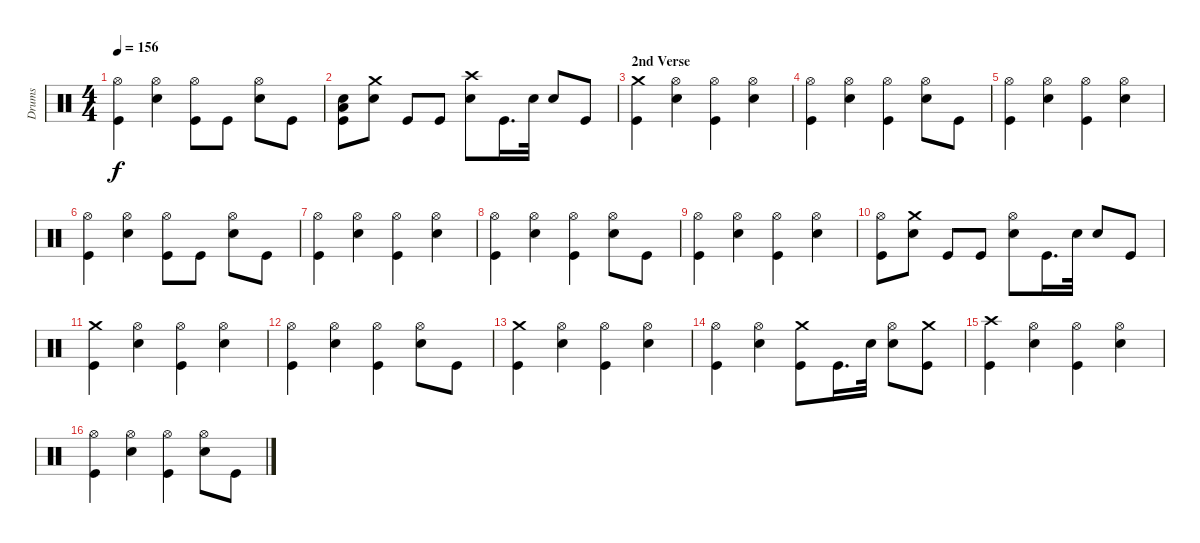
\track ("Drums" "Drums") {instrument percussion}
\staff {score}
\articulation defaults
\ts (4 4)
\tempo 156
\clef neutral
\ks c
("Hi-Hat (open)" "Kick (hit)").4{dy f} ("Hi-Hat (open)" "Electric Snare (hit)").4 ("Hi-Hat (open)" "Kick (hit)").8 "Kick (hit)".8 ("Hi-Hat (open)" "Electric Snare (hit)").8 "Kick (hit)".8 |
("Low Floor Tom (hit)" "Snare (hit) 2" "Kick (hit)").8 ("Crash medium (hit)" "Electric Snare (hit)").8 "Kick (hit)".8 "Kick (hit)".8 ("Electric Snare (hit)" "Crash high (hit)").8 "Kick (hit)".16{d} "Electric Snare (hit)".32 "Electric Snare (hit)".8 "Kick (hit)".8 |
\section ("" "2nd Verse")
("Kick (hit)" "Crash medium (hit)").4 ("Hi-Hat (open)" "Electric Snare (hit)").4 ("Hi-Hat (open)" "Kick (hit)").4 ("Hi-Hat (open)" "Electric Snare (hit)").4 |
("Kick (hit)" "Hi-Hat (open)").4 ("Electric Snare (hit)" "Hi-Hat (open)").4 ("Kick (hit)" "Hi-Hat (open)").4 ("Electric Snare (hit)" "Hi-Hat (open)").8 "Kick (hit)".8 |
("Kick (hit)" "Hi-Hat (open)").4 ("Electric Snare (hit)" "Hi-Hat (open)").4 ("Kick (hit)" "Hi-Hat (open)").4 ("Electric Snare (hit)" "Hi-Hat (open)").4 |
("Kick (hit)" "Hi-Hat (open)").4 ("Electric Snare (hit)" "Hi-Hat (open)").4 ("Kick (hit)" "Hi-Hat (open)").8 "Kick (hit)".8 ("Electric Snare (hit)" "Hi-Hat (open)").8 "Kick (hit)".8 |
("Kick (hit)" "Hi-Hat (open)").4 ("Hi-Hat (open)" "Electric Snare (hit)").4 ("Hi-Hat (open)" "Kick (hit)").4 ("Hi-Hat (open)" "Electric Snare (hit)").4 |
("Kick (hit)" "Hi-Hat (open)").4 ("Electric Snare (hit)" "Hi-Hat (open)").4 ("Kick (hit)" "Hi-Hat (open)").4 ("Electric Snare (hit)" "Hi-Hat (open)").8 "Kick (hit)".8 |
("Kick (hit)" "Hi-Hat (open)").4 ("Electric Snare (hit)" "Hi-Hat (open)").4 ("Kick (hit)" "Hi-Hat (open)").4 ("Electric Snare (hit)" "Hi-Hat (open)").4 |
("Kick (hit)" "Hi-Hat (open)").8 ("Electric Snare (hit)" "Crash medium (hit)").8 "Kick (hit)".8 "Kick (hit)".8 ("Hi-Hat (open)" "Electric Snare (hit)").8 "Kick (hit)".16{d} "Electric Snare (hit)".32 "Electric Snare (hit)".8 "Kick (hit)".8 |
("Kick (hit)" "Crash medium (hit)").4 ("Hi-Hat (open)" "Electric Snare (hit)").4 ("Hi-Hat (open)" "Kick (hit)").4 ("Hi-Hat (open)" "Electric Snare (hit)").4 |
("Kick (hit)" "Hi-Hat (open)").4 ("Electric Snare (hit)" "Hi-Hat (open)").4 ("Kick (hit)" "Hi-Hat (open)").4 ("Electric Snare (hit)" "Hi-Hat (open)").8 "Kick (hit)".8 |
("Kick (hit)" "Crash medium (hit)").4 ("Electric Snare (hit)" "Hi-Hat (open)").4 ("Kick (hit)" "Hi-Hat (open)").4 ("Electric Snare (hit)" "Hi-Hat (open)").4 |
("Kick (hit)" "Hi-Hat (open)").4 ("Electric Snare (hit)" "Hi-Hat (open)").4 ("Kick (hit)" "Crash medium (hit)").8 "Kick (hit)".16{d} "Electric Snare (hit)".32 ("Electric Snare (hit)" "Hi-Hat (open)").8 ("Crash medium (hit)" "Kick (hit)").8 |
("Crash high (hit)" "Kick (hit)").4 ("Electric Snare (hit)" "Hi-Hat (open)").4 ("Kick (hit)" "Hi-Hat (open)").4 ("Electric Snare (hit)" "Hi-Hat (open)").4 |
("Kick (hit)" "Hi-Hat (open)").4 ("Electric Snare (hit)" "Hi-Hat (open)").4 ("Kick (hit)" "Hi-Hat (open)").4 ("Electric Snare (hit)" "Hi-Hat (open)").8 "Kick (hit)".8
